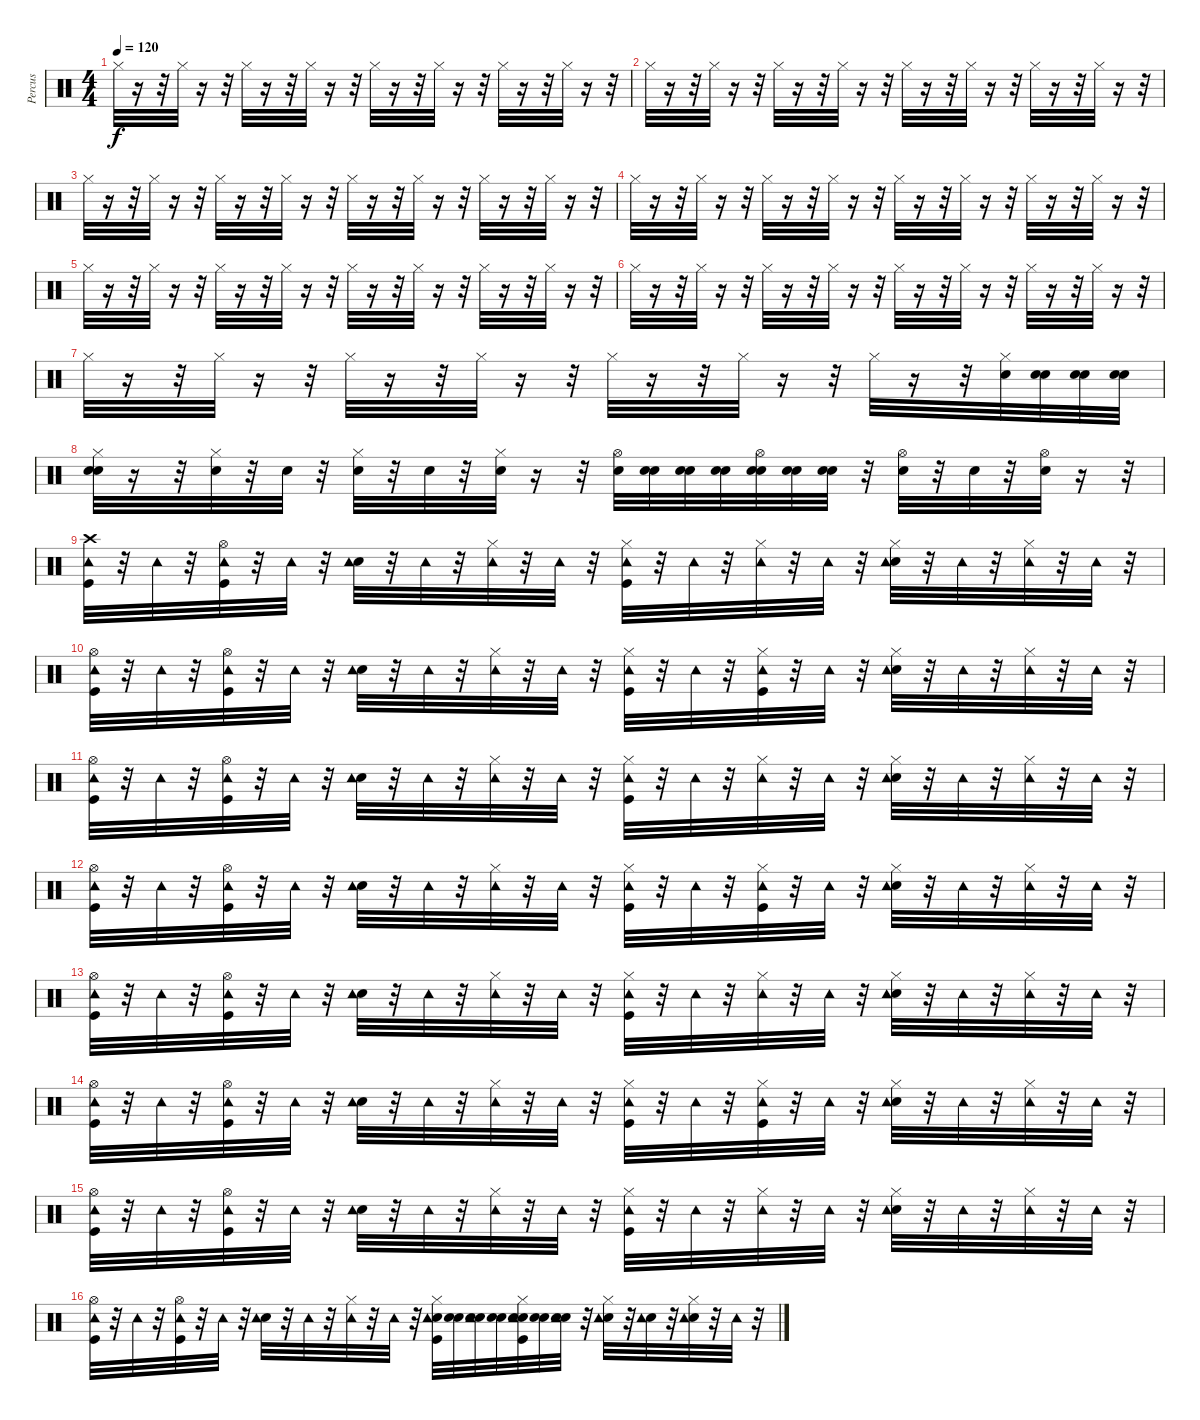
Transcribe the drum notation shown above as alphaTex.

\track ("Percus" "Percus") {instrument percussion}
\staff {score}
\articulation defaults
\ts (4 4)
\tempo 120
\clef neutral
\ks c "Hi-Hat (closed)".32{dy f}
r.16 r.32 "Hi-Hat (closed)".32 r.16 r.32 "Hi-Hat (closed)".32 r.16 r.32 "Hi-Hat (closed)".32 r.16 r.32 "Hi-Hat (closed)".32 r.16 r.32 "Hi-Hat (closed)".32 r.16 r.32 "Hi-Hat (closed)".32 r.16 r.32 "Hi-Hat (closed)".32 r.16 r.32 |
"Hi-Hat (closed)".32 r.16 r.32 "Hi-Hat (closed)".32 r.16 r.32 "Hi-Hat (closed)".32 r.16 r.32 "Hi-Hat (closed)".32 r.16 r.32 "Hi-Hat (closed)".32 r.16 r.32 "Hi-Hat (closed)".32 r.16 r.32 "Hi-Hat (closed)".32 r.16 r.32 "Hi-Hat (closed)".32 r.16 r.32 |
"Hi-Hat (closed)".32 r.16 r.32 "Hi-Hat (closed)".32 r.16 r.32 "Hi-Hat (closed)".32 r.16 r.32 "Hi-Hat (closed)".32 r.16 r.32 "Hi-Hat (closed)".32 r.16 r.32 "Hi-Hat (closed)".32 r.16 r.32 "Hi-Hat (closed)".32 r.16 r.32 "Hi-Hat (closed)".32 r.16 r.32 |
"Hi-Hat (closed)".32 r.16 r.32 "Hi-Hat (closed)".32 r.16 r.32 "Hi-Hat (closed)".32 r.16 r.32 "Hi-Hat (closed)".32 r.16 r.32 "Hi-Hat (closed)".32 r.16 r.32 "Hi-Hat (closed)".32 r.16 r.32 "Hi-Hat (closed)".32 r.16 r.32 "Hi-Hat (closed)".32 r.16 r.32 |
"Hi-Hat (closed)".32 r.16 r.32 "Hi-Hat (closed)".32 r.16 r.32 "Hi-Hat (closed)".32 r.16 r.32 "Hi-Hat (closed)".32 r.16 r.32 "Hi-Hat (closed)".32 r.16 r.32 "Hi-Hat (closed)".32 r.16 r.32 "Hi-Hat (closed)".32 r.16 r.32 "Hi-Hat (closed)".32 r.16 r.32 |
"Hi-Hat (closed)".32 r.16 r.32 "Hi-Hat (closed)".32 r.16 r.32 "Hi-Hat (closed)".32 r.16 r.32 "Hi-Hat (closed)".32 r.16 r.32 "Hi-Hat (closed)".32 r.16 r.32 "Hi-Hat (closed)".32 r.16 r.32 "Hi-Hat (closed)".32 r.16 r.32 "Hi-Hat (closed)".32 r.16 r.32 |
"Hi-Hat (closed)".32 r.16 r.32 "Hi-Hat (closed)".32 r.16 r.32 "Hi-Hat (closed)".32 r.16 r.32 "Hi-Hat (closed)".32 r.16 r.32 "Hi-Hat (closed)".32 r.16 r.32 "Hi-Hat (closed)".32 r.16 r.32 "Hi-Hat (closed)".32 r.16 r.32 ("Electric Snare (hit)" "Hi-Hat (closed)").32 ("Snare (hit)" "Electric Snare (hit)").32 ("Snare (hit)" "Electric Snare (hit)").32 ("Snare (hit)" "Electric Snare (hit)").32 |
("Snare (hit)" "Electric Snare (hit)" "Hi-Hat (closed)").32 r.16 r.32 ("Electric Snare (hit)" "Hi-Hat (closed)").32 r.32 "Electric Snare (hit)".32 r.32 ("Electric Snare (hit)" "Hi-Hat (closed)").32 r.32 "Electric Snare (hit)".32 r.32 ("Electric Snare (hit)" "Hi-Hat (closed)").32 r.16 r.32 ("Electric Snare (hit)" "Hi-Hat (open)").32 ("Snare (hit)" "Electric Snare (hit)").32 ("Snare (hit)" "Electric Snare (hit)").32 ("Snare (hit)" "Electric Snare (hit)").32 ("Snare (hit)" "Electric Snare (hit)" "Hi-Hat (open)").32 ("Snare (hit)" "Electric Snare (hit)").32 ("Snare (hit)" "Electric Snare (hit)").32 r.32 ("Electric Snare (hit)" "Hi-Hat (open)").32 r.32 "Electric Snare (hit)".32 r.32 ("Electric Snare (hit)" "Hi-Hat (open)").32 r.16 r.32 |
("Kick (hit)" "Crash high (hit)" "Tambourine (hit)").32 r.32 "Tambourine (hit)".32 r.32 ("Kick (hit)" "Hi-Hat (open)" "Tambourine (hit)").32 r.32 "Tambourine (hit)".32 r.32 ("Electric Snare (hit)" "Tambourine (hit)").32 r.32 "Tambourine (hit)".32 r.32 ("Hi-Hat (closed)" "Tambourine (hit)").32 r.32 "Tambourine (hit)".32 r.32 ("Kick (hit)" "Hi-Hat (closed)" "Tambourine (hit)").32 r.32 "Tambourine (hit)".32 r.32 ("Hi-Hat (closed)" "Tambourine (hit)").32 r.32 "Tambourine (hit)".32 r.32 ("Electric Snare (hit)" "Hi-Hat (closed)" "Tambourine (hit)").32 r.32 "Tambourine (hit)".32 r.32 ("Hi-Hat (closed)" "Tambourine (hit)").32 r.32 "Tambourine (hit)".32 r.32 |
("Kick (hit)" "Hi-Hat (open)" "Tambourine (hit)").32 r.32 "Tambourine (hit)".32 r.32 ("Kick (hit)" "Hi-Hat (open)" "Tambourine (hit)").32 r.32 "Tambourine (hit)".32 r.32 ("Electric Snare (hit)" "Tambourine (hit)").32 r.32 "Tambourine (hit)".32 r.32 ("Hi-Hat (closed)" "Tambourine (hit)").32 r.32 "Tambourine (hit)".32 r.32 ("Kick (hit)" "Hi-Hat (closed)" "Tambourine (hit)").32 r.32 "Tambourine (hit)".32 r.32 ("Kick (hit)" "Hi-Hat (closed)" "Tambourine (hit)").32 r.32 "Tambourine (hit)".32 r.32 ("Electric Snare (hit)" "Hi-Hat (closed)" "Tambourine (hit)").32 r.32 "Tambourine (hit)".32 r.32 ("Hi-Hat (closed)" "Tambourine (hit)").32 r.32 "Tambourine (hit)".32 r.32 |
("Kick (hit)" "Hi-Hat (open)" "Tambourine (hit)").32 r.32 "Tambourine (hit)".32 r.32 ("Kick (hit)" "Hi-Hat (open)" "Tambourine (hit)").32 r.32 "Tambourine (hit)".32 r.32 ("Electric Snare (hit)" "Tambourine (hit)").32 r.32 "Tambourine (hit)".32 r.32 ("Hi-Hat (closed)" "Tambourine (hit)").32 r.32 "Tambourine (hit)".32 r.32 ("Kick (hit)" "Hi-Hat (closed)" "Tambourine (hit)").32 r.32 "Tambourine (hit)".32 r.32 ("Hi-Hat (closed)" "Tambourine (hit)").32 r.32 "Tambourine (hit)".32 r.32 ("Electric Snare (hit)" "Hi-Hat (closed)" "Tambourine (hit)").32 r.32 "Tambourine (hit)".32 r.32 ("Hi-Hat (closed)" "Tambourine (hit)").32 r.32 "Tambourine (hit)".32 r.32 |
("Kick (hit)" "Hi-Hat (open)" "Tambourine (hit)").32 r.32 "Tambourine (hit)".32 r.32 ("Kick (hit)" "Hi-Hat (open)" "Tambourine (hit)").32 r.32 "Tambourine (hit)".32 r.32 ("Electric Snare (hit)" "Tambourine (hit)").32 r.32 "Tambourine (hit)".32 r.32 ("Hi-Hat (closed)" "Tambourine (hit)").32 r.32 "Tambourine (hit)".32 r.32 ("Kick (hit)" "Hi-Hat (closed)" "Tambourine (hit)").32 r.32 "Tambourine (hit)".32 r.32 ("Kick (hit)" "Hi-Hat (closed)" "Tambourine (hit)").32 r.32 "Tambourine (hit)".32 r.32 ("Electric Snare (hit)" "Hi-Hat (closed)" "Tambourine (hit)").32 r.32 "Tambourine (hit)".32 r.32 ("Hi-Hat (closed)" "Tambourine (hit)").32 r.32 "Tambourine (hit)".32 r.32 |
("Kick (hit)" "Hi-Hat (open)" "Tambourine (hit)").32 r.32 "Tambourine (hit)".32 r.32 ("Kick (hit)" "Hi-Hat (open)" "Tambourine (hit)").32 r.32 "Tambourine (hit)".32 r.32 ("Electric Snare (hit)" "Tambourine (hit)").32 r.32 "Tambourine (hit)".32 r.32 ("Hi-Hat (closed)" "Tambourine (hit)").32 r.32 "Tambourine (hit)".32 r.32 ("Kick (hit)" "Hi-Hat (closed)" "Tambourine (hit)").32 r.32 "Tambourine (hit)".32 r.32 ("Hi-Hat (closed)" "Tambourine (hit)").32 r.32 "Tambourine (hit)".32 r.32 ("Electric Snare (hit)" "Hi-Hat (closed)" "Tambourine (hit)").32 r.32 "Tambourine (hit)".32 r.32 ("Hi-Hat (closed)" "Tambourine (hit)").32 r.32 "Tambourine (hit)".32 r.32 |
("Kick (hit)" "Hi-Hat (open)" "Tambourine (hit)").32 r.32 "Tambourine (hit)".32 r.32 ("Kick (hit)" "Hi-Hat (open)" "Tambourine (hit)").32 r.32 "Tambourine (hit)".32 r.32 ("Electric Snare (hit)" "Tambourine (hit)").32 r.32 "Tambourine (hit)".32 r.32 ("Hi-Hat (closed)" "Tambourine (hit)").32 r.32 "Tambourine (hit)".32 r.32 ("Kick (hit)" "Hi-Hat (closed)" "Tambourine (hit)").32 r.32 "Tambourine (hit)".32 r.32 ("Kick (hit)" "Hi-Hat (closed)" "Tambourine (hit)").32 r.32 "Tambourine (hit)".32 r.32 ("Electric Snare (hit)" "Hi-Hat (closed)" "Tambourine (hit)").32 r.32 "Tambourine (hit)".32 r.32 ("Hi-Hat (closed)" "Tambourine (hit)").32 r.32 "Tambourine (hit)".32 r.32 |
("Kick (hit)" "Hi-Hat (open)" "Tambourine (hit)").32 r.32 "Tambourine (hit)".32 r.32 ("Kick (hit)" "Hi-Hat (open)" "Tambourine (hit)").32 r.32 "Tambourine (hit)".32 r.32 ("Electric Snare (hit)" "Tambourine (hit)").32 r.32 "Tambourine (hit)".32 r.32 ("Hi-Hat (closed)" "Tambourine (hit)").32 r.32 "Tambourine (hit)".32 r.32 ("Kick (hit)" "Hi-Hat (closed)" "Tambourine (hit)").32 r.32 "Tambourine (hit)".32 r.32 ("Hi-Hat (closed)" "Tambourine (hit)").32 r.32 "Tambourine (hit)".32 r.32 ("Electric Snare (hit)" "Hi-Hat (closed)" "Tambourine (hit)").32 r.32 "Tambourine (hit)".32 r.32 ("Hi-Hat (closed)" "Tambourine (hit)").32 r.32 "Tambourine (hit)".32 r.32 |
("Kick (hit)" "Hi-Hat (open)" "Tambourine (hit)").32 r.32 "Tambourine (hit)".32 r.32 ("Kick (hit)" "Hi-Hat (open)" "Tambourine (hit)").32 r.32 "Tambourine (hit)".32 r.32 ("Electric Snare (hit)" "Tambourine (hit)").32 r.32 "Tambourine (hit)".32 r.32 ("Hi-Hat (closed)" "Tambourine (hit)").32 r.32 "Tambourine (hit)".32 r.32 ("Kick (hit)" "Electric Snare (hit)" "Hi-Hat (closed)" "Tambourine (hit)").32 ("Snare (hit)" "Electric Snare (hit)").32 ("Snare (hit)" "Electric Snare (hit)" "Tambourine (hit)").32 ("Snare (hit)" "Electric Snare (hit)").32 ("Snare (hit)" "Kick (hit)" "Electric Snare (hit)" "Hi-Hat (closed)" "Tambourine (hit)").32 ("Snare (hit)" "Electric Snare (hit)").32 ("Snare (hit)" "Electric Snare (hit)" "Tambourine (hit)").32 r.32 ("Electric Snare (hit)" "Hi-Hat (closed)" "Tambourine (hit)").32 r.32 ("Electric Snare (hit)" "Tambourine (hit)").32 r.32 ("Electric Snare (hit)" "Hi-Hat (closed)" "Tambourine (hit)").32 r.32 "Tambourine (hit)".32 r.32
